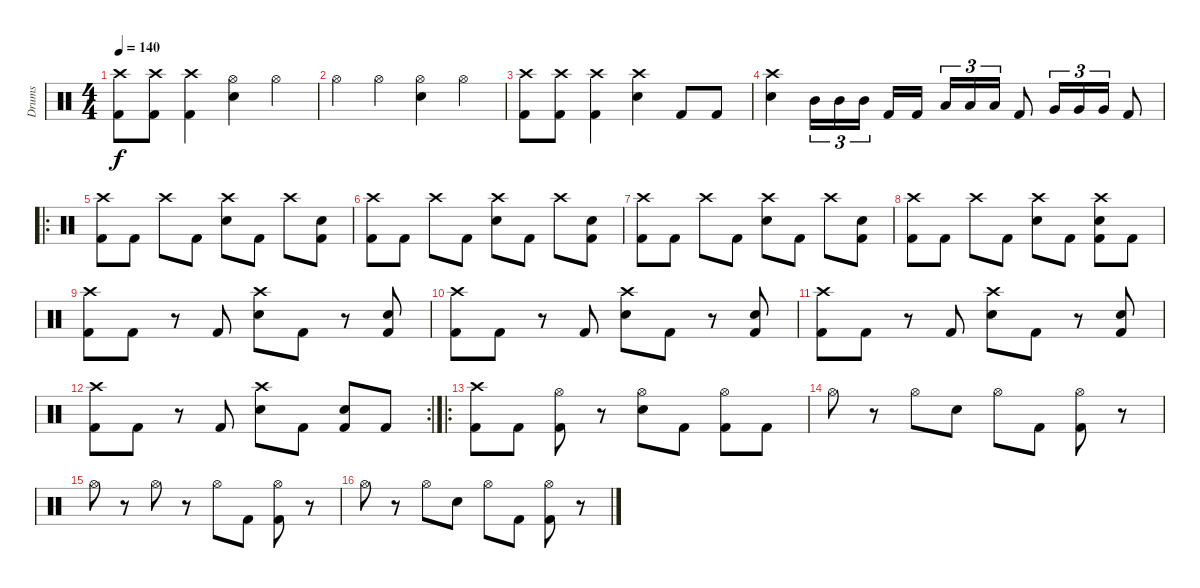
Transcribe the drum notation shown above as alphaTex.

\track ("Drums" "Drums") {instrument percussion}
\staff {score}
\articulation defaults
\ts (4 4)
\tempo 140
\clef neutral
\ks c
("Crash high (hit)" "Kick (hit) 2").8{dy f} ("Crash high (hit)" "Kick (hit) 2").8 ("Crash high (hit)" "Kick (hit) 2").4 ("Hi-Hat (open)" "Electric Snare (hit)").4 "Hi-Hat (open)".4 |
"Hi-Hat (open)".4 "Hi-Hat (open)".4 ("Hi-Hat (open)" "Electric Snare (hit)").4 "Hi-Hat (open)".4 |
("Crash high (hit)" "Kick (hit) 2").8 ("Crash high (hit)" "Kick (hit) 2").8 ("Crash high (hit)" "Kick (hit) 2").4 ("Crash high (hit)" "Electric Snare (hit)").4 "Kick (hit) 2".8 "Kick (hit) 2".8 |
("Crash high (hit)" "Electric Snare (hit)").4 "Mid Tom (hit)".16{tu (3 2)} "Mid Tom (hit)".16{tu (3 2)} "Mid Tom (hit)".16{tu (3 2) beam splitsecondary} "Kick (hit) 2".16 "Kick (hit) 2".16 "Low Tom (hit)".16{tu (3 2)} "Low Tom (hit)".16{tu (3 2)} "Low Tom (hit)".16{tu (3 2)} "Kick (hit) 2".8 "Very Low Tom (hit)".16{tu (3 2)} "Very Low Tom (hit)".16{tu (3 2)} "Very Low Tom (hit)".16{tu (3 2)} "Kick (hit) 2".8 |
\ro
("Crash high (hit)" "Kick (hit) 2").8 "Kick (hit) 2".8 "Crash high (hit)".8 "Kick (hit) 2".8 ("Crash high (hit)" "Electric Snare (hit)").8 "Kick (hit) 2".8 "Crash high (hit)".8 ("Electric Snare (hit)" "Kick (hit) 2").8 |
("Crash high (hit)" "Kick (hit) 2").8 "Kick (hit) 2".8 "Crash high (hit)".8 "Kick (hit) 2".8 ("Crash high (hit)" "Electric Snare (hit)").8 "Kick (hit) 2".8 "Crash high (hit)".8 ("Electric Snare (hit)" "Kick (hit) 2").8 |
("Crash high (hit)" "Kick (hit) 2").8 "Kick (hit) 2".8 "Crash high (hit)".8 "Kick (hit) 2".8 ("Crash high (hit)" "Electric Snare (hit)").8 "Kick (hit) 2".8 "Crash high (hit)".8 ("Electric Snare (hit)" "Kick (hit) 2").8 |
("Crash high (hit)" "Kick (hit) 2").8 "Kick (hit) 2".8 "Crash high (hit)".8 "Kick (hit) 2".8 ("Crash high (hit)" "Electric Snare (hit)").8 "Kick (hit) 2".8 ("Crash high (hit)" "Electric Snare (hit)" "Kick (hit) 2").8 "Kick (hit) 2".8 |
("Crash high (hit)" "Kick (hit) 2").8 "Kick (hit) 2".8 r.8 "Kick (hit) 2".8 ("Crash high (hit)" "Electric Snare (hit)").8 "Kick (hit) 2".8 r.8 ("Electric Snare (hit)" "Kick (hit) 2").8 |
("Crash high (hit)" "Kick (hit) 2").8 "Kick (hit) 2".8 r.8 "Kick (hit) 2".8 ("Crash high (hit)" "Electric Snare (hit)").8 "Kick (hit) 2".8 r.8 ("Electric Snare (hit)" "Kick (hit) 2").8 |
("Crash high (hit)" "Kick (hit) 2").8 "Kick (hit) 2".8 r.8 "Kick (hit) 2".8 ("Crash high (hit)" "Electric Snare (hit)").8 "Kick (hit) 2".8 r.8 ("Electric Snare (hit)" "Kick (hit) 2").8 |
\rc 2
("Crash high (hit)" "Kick (hit) 2").8 "Kick (hit) 2".8 r.8 "Kick (hit) 2".8 ("Crash high (hit)" "Electric Snare (hit)").8 "Kick (hit) 2".8 ("Electric Snare (hit)" "Kick (hit) 2").8 "Kick (hit) 2".8 |
\ro
("Crash high (hit)" "Kick (hit) 2").8 "Kick (hit) 2".8 ("Hi-Hat (open)" "Kick (hit) 2").8 r.8 ("Hi-Hat (open)" "Electric Snare (hit)").8 "Kick (hit) 2".8 ("Hi-Hat (open)" "Kick (hit) 2").8 "Kick (hit) 2".8 |
"Hi-Hat (open)".8 r.8 "Hi-Hat (open)".8 "Electric Snare (hit)".8 "Hi-Hat (open)".8 "Kick (hit) 2".8 ("Hi-Hat (open)" "Kick (hit) 2").8 r.8 |
"Hi-Hat (open)".8 r.8 "Hi-Hat (open)".8 r.8 "Hi-Hat (open)".8 "Kick (hit) 2".8 ("Hi-Hat (open)" "Kick (hit) 2").8 r.8 |
"Hi-Hat (open)".8 r.8 "Hi-Hat (open)".8 "Electric Snare (hit)".8 "Hi-Hat (open)".8 "Kick (hit) 2".8 ("Hi-Hat (open)" "Kick (hit) 2").8 r.8
